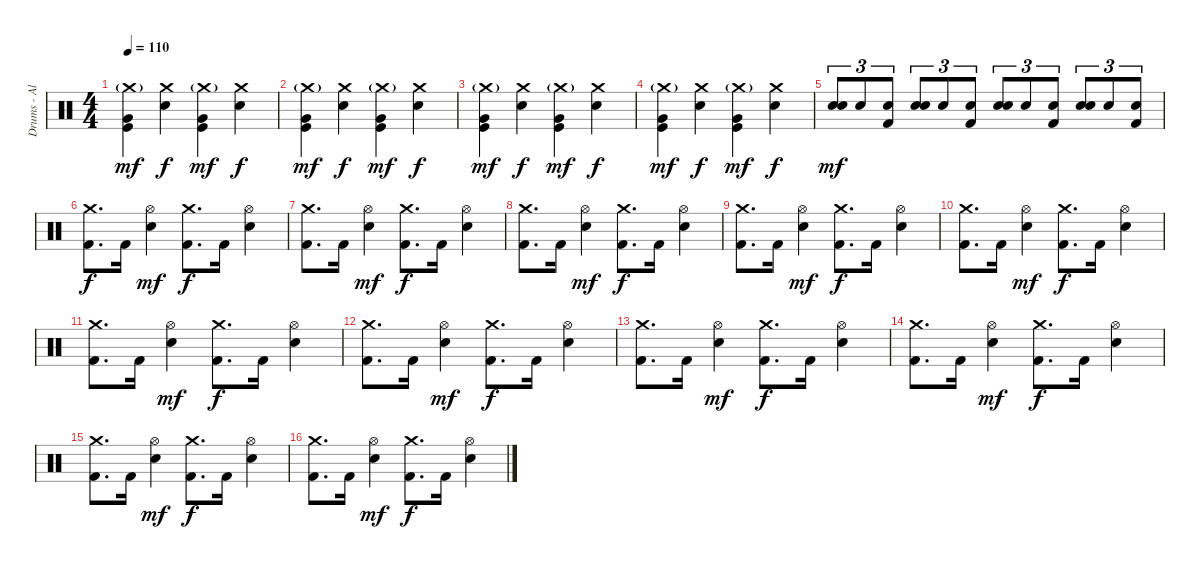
\track ("Drums - Alan White" "Drums - Al") {instrument percussion}
\staff {score}
\articulation defaults
\ts (4 4)
\tempo 110
\clef neutral
\ks c
("Crash medium (hit)"{g} "Kick (hit)" "Very Low Tom (hit)").4{dy mf} ("Crash medium (hit)" "Electric Snare (hit)").4{dy f} ("Crash medium (hit)"{g} "Kick (hit)" "Very Low Tom (hit)").4{dy mf} ("Crash medium (hit)" "Electric Snare (hit)").4{dy f} |
("Crash medium (hit)"{g} "Kick (hit)" "Very Low Tom (hit)").4{dy mf} ("Crash medium (hit)" "Electric Snare (hit)").4{dy f} ("Crash medium (hit)"{g} "Kick (hit)" "Very Low Tom (hit)").4{dy mf} ("Crash medium (hit)" "Electric Snare (hit)").4{dy f} |
("Crash medium (hit)"{g} "Kick (hit)" "Very Low Tom (hit)").4{dy mf} ("Crash medium (hit)" "Electric Snare (hit)").4{dy f} ("Crash medium (hit)"{g} "Kick (hit)" "Very Low Tom (hit)").4{dy mf} ("Crash medium (hit)" "Electric Snare (hit)").4{dy f} |
("Crash medium (hit)"{g} "Kick (hit)" "Very Low Tom (hit)").4{dy mf} ("Crash medium (hit)" "Electric Snare (hit)").4{dy f} ("Crash medium (hit)"{g} "Kick (hit)" "Very Low Tom (hit)").4{dy mf} ("Crash medium (hit)" "Electric Snare (hit)").4{dy f} |
("Electric Snare (hit)" "Snare (hit) 2").8{tu (3 2) dy mf} "Snare (hit) 2".8{tu (3 2)} ("Snare (hit) 2" "Kick (hit) 2").8{tu (3 2)} ("Electric Snare (hit)" "Snare (hit) 2").8{tu (3 2)} "Snare (hit) 2".8{tu (3 2)} ("Snare (hit) 2" "Kick (hit) 2").8{tu (3 2)} ("Electric Snare (hit)" "Snare (hit) 2").8{tu (3 2)} "Snare (hit) 2".8{tu (3 2)} ("Snare (hit) 2" "Kick (hit) 2").8{tu (3 2)} ("Electric Snare (hit)" "Snare (hit) 2").8{tu (3 2)} "Snare (hit) 2".8{tu (3 2)} ("Snare (hit) 2" "Kick (hit) 2").8{tu (3 2)} |
("Crash medium (hit)" "Kick (hit) 2").8{d dy f} "Kick (hit) 2".16 ("Hi-Hat (open)" "Snare (hit) 2").4{dy mf} ("Crash medium (hit)" "Kick (hit) 2").8{d dy f} "Kick (hit) 2".16 ("Hi-Hat (open)" "Snare (hit) 2").4 |
("Crash medium (hit)" "Kick (hit) 2").8{d} "Kick (hit) 2".16 ("Hi-Hat (open)" "Snare (hit) 2").4{dy mf} ("Crash medium (hit)" "Kick (hit) 2").8{d dy f} "Kick (hit) 2".16 ("Hi-Hat (open)" "Snare (hit) 2").4 |
("Crash medium (hit)" "Kick (hit) 2").8{d} "Kick (hit) 2".16 ("Hi-Hat (open)" "Snare (hit) 2").4{dy mf} ("Crash medium (hit)" "Kick (hit) 2").8{d dy f} "Kick (hit) 2".16 ("Hi-Hat (open)" "Snare (hit) 2").4 |
("Crash medium (hit)" "Kick (hit) 2").8{d} "Kick (hit) 2".16 ("Hi-Hat (open)" "Snare (hit) 2").4{dy mf} ("Crash medium (hit)" "Kick (hit) 2").8{d dy f} "Kick (hit) 2".16 ("Hi-Hat (open)" "Snare (hit) 2").4 |
("Crash medium (hit)" "Kick (hit) 2").8{d} "Kick (hit) 2".16 ("Hi-Hat (open)" "Snare (hit) 2").4{dy mf} ("Crash medium (hit)" "Kick (hit) 2").8{d dy f} "Kick (hit) 2".16 ("Hi-Hat (open)" "Snare (hit) 2").4 |
("Crash medium (hit)" "Kick (hit) 2").8{d} "Kick (hit) 2".16 ("Hi-Hat (open)" "Snare (hit) 2").4{dy mf} ("Crash medium (hit)" "Kick (hit) 2").8{d dy f} "Kick (hit) 2".16 ("Hi-Hat (open)" "Snare (hit) 2").4 |
("Crash medium (hit)" "Kick (hit) 2").8{d} "Kick (hit) 2".16 ("Hi-Hat (open)" "Snare (hit) 2").4{dy mf} ("Crash medium (hit)" "Kick (hit) 2").8{d dy f} "Kick (hit) 2".16 ("Hi-Hat (open)" "Snare (hit) 2").4 |
("Crash medium (hit)" "Kick (hit) 2").8{d} "Kick (hit) 2".16 ("Hi-Hat (open)" "Snare (hit) 2").4{dy mf} ("Crash medium (hit)" "Kick (hit) 2").8{d dy f} "Kick (hit) 2".16 ("Hi-Hat (open)" "Snare (hit) 2").4 |
("Crash medium (hit)" "Kick (hit) 2").8{d} "Kick (hit) 2".16 ("Hi-Hat (open)" "Snare (hit) 2").4{dy mf} ("Crash medium (hit)" "Kick (hit) 2").8{d dy f} "Kick (hit) 2".16 ("Hi-Hat (open)" "Snare (hit) 2").4 |
("Crash medium (hit)" "Kick (hit) 2").8{d} "Kick (hit) 2".16 ("Hi-Hat (open)" "Snare (hit) 2").4{dy mf} ("Crash medium (hit)" "Kick (hit) 2").8{d dy f} "Kick (hit) 2".16 ("Hi-Hat (open)" "Snare (hit) 2").4 |
("Crash medium (hit)" "Kick (hit) 2").8{d} "Kick (hit) 2".16 ("Hi-Hat (open)" "Snare (hit) 2").4{dy mf} ("Crash medium (hit)" "Kick (hit) 2").8{d dy f} "Kick (hit) 2".16 ("Hi-Hat (open)" "Snare (hit) 2").4
